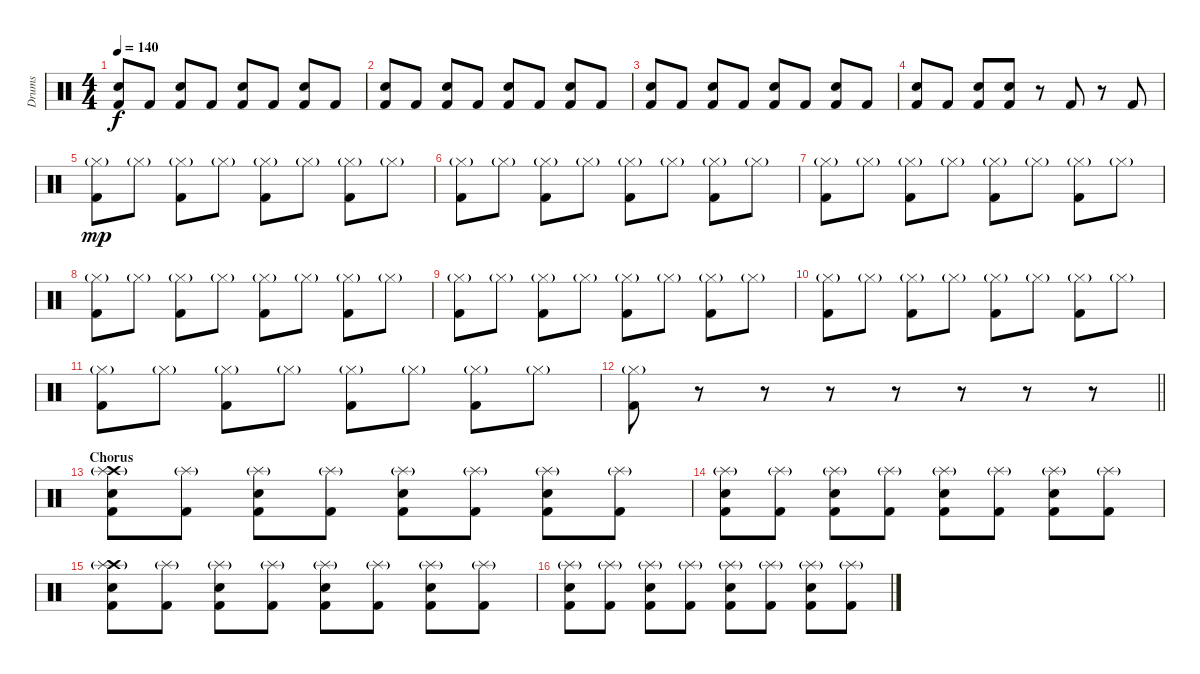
\track ("Drums" "Drums") {instrument percussion}
\staff {score}
\articulation defaults
\ts (4 4)
\tempo 140
\clef neutral
\ks c
("Electric Snare (hit)" "Kick (hit) 2").8{dy f} "Kick (hit) 2".8 ("Electric Snare (hit)" "Kick (hit) 2").8 "Kick (hit) 2".8 ("Electric Snare (hit)" "Kick (hit) 2").8 "Kick (hit) 2".8 ("Electric Snare (hit)" "Kick (hit) 2").8 "Kick (hit) 2".8 |
("Electric Snare (hit)" "Kick (hit) 2").8 "Kick (hit) 2".8 ("Electric Snare (hit)" "Kick (hit) 2").8 "Kick (hit) 2".8 ("Electric Snare (hit)" "Kick (hit) 2").8 "Kick (hit) 2".8 ("Electric Snare (hit)" "Kick (hit) 2").8 "Kick (hit) 2".8 |
("Electric Snare (hit)" "Kick (hit) 2").8 "Kick (hit) 2".8 ("Electric Snare (hit)" "Kick (hit) 2").8 "Kick (hit) 2".8 ("Electric Snare (hit)" "Kick (hit) 2").8 "Kick (hit) 2".8 ("Electric Snare (hit)" "Kick (hit) 2").8 "Kick (hit) 2".8 |
("Electric Snare (hit)" "Kick (hit) 2").8 "Kick (hit) 2".8 ("Electric Snare (hit)" "Kick (hit) 2").8 ("Electric Snare (hit)" "Kick (hit) 2").8 r.8 "Kick (hit) 2".8 r.8 "Kick (hit) 2".8 |
("Hi-Hat (closed)"{g} "Kick (hit) 2").8{dy mp} "Hi-Hat (closed)"{g}.8 ("Hi-Hat (closed)"{g} "Kick (hit) 2").8 "Hi-Hat (closed)"{g}.8 ("Hi-Hat (closed)"{g} "Kick (hit) 2").8 "Hi-Hat (closed)"{g}.8 ("Hi-Hat (closed)"{g} "Kick (hit) 2").8 "Hi-Hat (closed)"{g}.8 |
("Hi-Hat (closed)"{g} "Kick (hit) 2").8 "Hi-Hat (closed)"{g}.8 ("Hi-Hat (closed)"{g} "Kick (hit) 2").8 "Hi-Hat (closed)"{g}.8 ("Hi-Hat (closed)"{g} "Kick (hit) 2").8 "Hi-Hat (closed)"{g}.8 ("Hi-Hat (closed)"{g} "Kick (hit) 2").8 "Hi-Hat (closed)"{g}.8 |
("Hi-Hat (closed)"{g} "Kick (hit) 2").8 "Hi-Hat (closed)"{g}.8 ("Hi-Hat (closed)"{g} "Kick (hit) 2").8 "Hi-Hat (closed)"{g}.8 ("Hi-Hat (closed)"{g} "Kick (hit) 2").8 "Hi-Hat (closed)"{g}.8 ("Hi-Hat (closed)"{g} "Kick (hit) 2").8 "Hi-Hat (closed)"{g}.8 |
("Hi-Hat (closed)"{g} "Kick (hit) 2").8 "Hi-Hat (closed)"{g}.8 ("Hi-Hat (closed)"{g} "Kick (hit) 2").8 "Hi-Hat (closed)"{g}.8 ("Hi-Hat (closed)"{g} "Kick (hit) 2").8 "Hi-Hat (closed)"{g}.8 ("Hi-Hat (closed)"{g} "Kick (hit) 2").8 "Hi-Hat (closed)"{g}.8 |
("Hi-Hat (closed)"{g} "Kick (hit) 2").8 "Hi-Hat (closed)"{g}.8 ("Hi-Hat (closed)"{g} "Kick (hit) 2").8 "Hi-Hat (closed)"{g}.8 ("Hi-Hat (closed)"{g} "Kick (hit) 2").8 "Hi-Hat (closed)"{g}.8 ("Hi-Hat (closed)"{g} "Kick (hit) 2").8 "Hi-Hat (closed)"{g}.8 |
("Hi-Hat (closed)"{g} "Kick (hit) 2").8 "Hi-Hat (closed)"{g}.8 ("Hi-Hat (closed)"{g} "Kick (hit) 2").8 "Hi-Hat (closed)"{g}.8 ("Hi-Hat (closed)"{g} "Kick (hit) 2").8 "Hi-Hat (closed)"{g}.8 ("Hi-Hat (closed)"{g} "Kick (hit) 2").8 "Hi-Hat (closed)"{g}.8 |
("Hi-Hat (closed)"{g} "Kick (hit) 2").8 "Hi-Hat (closed)"{g}.8 ("Hi-Hat (closed)"{g} "Kick (hit) 2").8 "Hi-Hat (closed)"{g}.8 ("Hi-Hat (closed)"{g} "Kick (hit) 2").8 "Hi-Hat (closed)"{g}.8 ("Hi-Hat (closed)"{g} "Kick (hit) 2").8 "Hi-Hat (closed)"{g}.8 |
\barLineRight lightlight
("Hi-Hat (closed)"{g} "Kick (hit) 2").8 r.8 r.8 r.8 r.8 r.8 r.8 r.8 |
\section ("" "Chorus")
("Crash high (hit)" "Splash (hit)"{g} "Electric Snare (hit)" "Kick (hit) 2").8 ("Splash (hit)"{g} "Kick (hit) 2").8 ("Splash (hit)"{g} "Electric Snare (hit)" "Kick (hit) 2").8 ("Splash (hit)"{g} "Kick (hit) 2").8 ("Splash (hit)"{g} "Electric Snare (hit)" "Kick (hit) 2").8 ("Splash (hit)"{g} "Kick (hit) 2").8 ("Splash (hit)"{g} "Electric Snare (hit)" "Kick (hit) 2").8 ("Splash (hit)"{g} "Kick (hit) 2").8 |
("Splash (hit)"{g} "Electric Snare (hit)" "Kick (hit) 2").8 ("Splash (hit)"{g} "Kick (hit) 2").8 ("Splash (hit)"{g} "Electric Snare (hit)" "Kick (hit) 2").8 ("Splash (hit)"{g} "Kick (hit) 2").8 ("Splash (hit)"{g} "Electric Snare (hit)" "Kick (hit) 2").8 ("Splash (hit)"{g} "Kick (hit) 2").8 ("Splash (hit)"{g} "Electric Snare (hit)" "Kick (hit) 2").8 ("Splash (hit)"{g} "Kick (hit) 2").8 |
("Crash high (hit)" "Splash (hit)"{g} "Electric Snare (hit)" "Kick (hit) 2").8 ("Splash (hit)"{g} "Kick (hit) 2").8 ("Splash (hit)"{g} "Electric Snare (hit)" "Kick (hit) 2").8 ("Splash (hit)"{g} "Kick (hit) 2").8 ("Splash (hit)"{g} "Electric Snare (hit)" "Kick (hit) 2").8 ("Splash (hit)"{g} "Kick (hit) 2").8 ("Splash (hit)"{g} "Electric Snare (hit)" "Kick (hit) 2").8 ("Splash (hit)"{g} "Kick (hit) 2").8 |
("Splash (hit)"{g} "Electric Snare (hit)" "Kick (hit) 2").8 ("Splash (hit)"{g} "Kick (hit) 2").8 ("Splash (hit)"{g} "Electric Snare (hit)" "Kick (hit) 2").8 ("Splash (hit)"{g} "Kick (hit) 2").8 ("Splash (hit)"{g} "Electric Snare (hit)" "Kick (hit) 2").8 ("Splash (hit)"{g} "Kick (hit) 2").8 ("Splash (hit)"{g} "Electric Snare (hit)" "Kick (hit) 2").8 ("Splash (hit)"{g} "Kick (hit) 2").8
